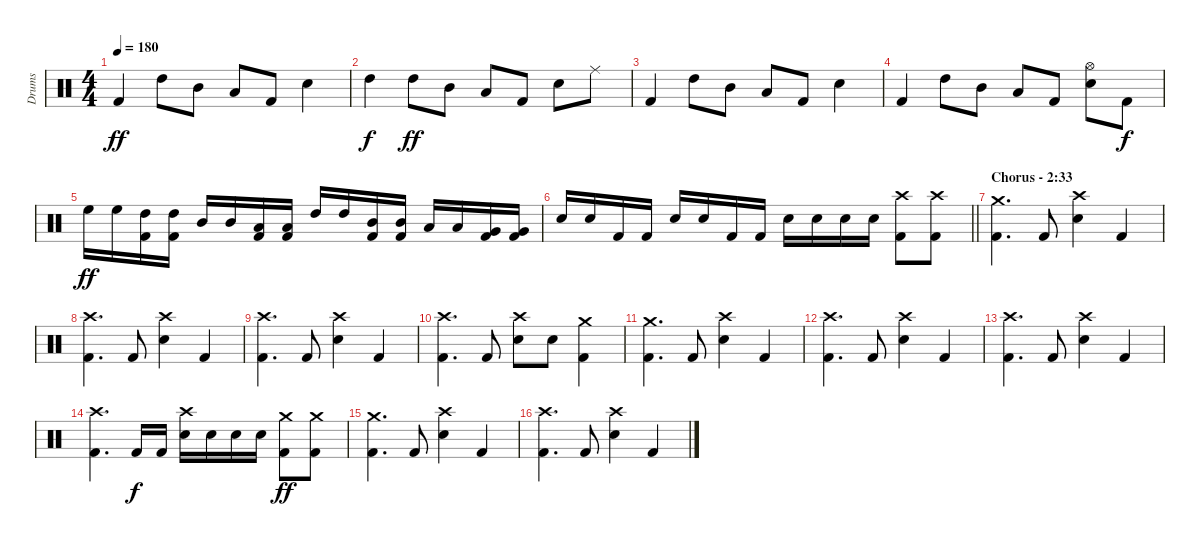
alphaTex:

\track ("Drums" "Drums") {instrument percussion}
\staff {score}
\articulation defaults
\ts (4 4)
\tempo 180
\clef neutral
\ks c "Kick (hit) 2".4{dy ff} "High Tom (hit)".8 "Mid Tom (hit)".8 "Low Tom (hit)".8 "Kick (hit) 2".8 "Electric Snare (hit)".4
|
"High Tom (hit)".4{dy f} "High Tom (hit)".8{dy ff} "Mid Tom (hit)".8 "Low Tom (hit)".8 "Kick (hit) 2".8 "Electric Snare (hit)".8 "Ride (middle)".8 |
"Kick (hit) 2".4 "High Tom (hit)".8 "Mid Tom (hit)".8 "Low Tom (hit)".8 "Kick (hit) 2".8 "Electric Snare (hit)".4 |
"Kick (hit) 2".4 "High Tom (hit)".8 "Mid Tom (hit)".8 "Low Tom (hit)".8 "Kick (hit) 2".8 ("Hi-Hat (open)" "Electric Snare (hit)").8 "Kick (hit) 2".8{dy f} |
"High Floor Tom (hit)".16{dy ff} "High Floor Tom (hit)".16 ("High Tom (hit)" "Kick (hit) 2").16 ("High Tom (hit)" "Kick (hit) 2").16 "Mid Tom (hit)".16 "Mid Tom (hit)".16 ("Low Tom (hit)" "Kick (hit) 2").16 ("Low Tom (hit)" "Kick (hit) 2").16 "High Tom (hit)".16 "High Tom (hit)".16 ("Mid Tom (hit)" "Kick (hit) 2").16 ("Mid Tom (hit)" "Kick (hit) 2").16 "Low Tom (hit)".16 "Low Tom (hit)".16 ("Very Low Tom (hit)" "Kick (hit) 2").16 ("Very Low Tom (hit)" "Kick (hit) 2").16 |
\barLineRight lightlight "Electric Snare (hit)".16 "Electric Snare (hit)".16 "Kick (hit) 2".16 "Kick (hit) 2".16 "Electric Snare (hit)".16 "Electric Snare (hit)".16 "Kick (hit) 2".16 "Kick (hit) 2".16 "Electric Snare (hit)".16 "Electric Snare (hit)".16 "Electric Snare (hit)".16 "Electric Snare (hit)".16
("Crash high (hit)" "Kick (hit) 2").8 ("Crash high (hit)" "Kick (hit) 2").8 |
\section ("" "Chorus - 2:33")
("Crash medium (hit)" "Kick (hit) 2").4{d} "Kick (hit) 2".8 ("Crash high (hit)" "Electric Snare (hit)").4 "Kick (hit) 2".4 |
("Crash high (hit)" "Kick (hit) 2").4{d} "Kick (hit) 2".8 ("Crash high (hit)" "Electric Snare (hit)").4 "Kick (hit) 2".4 |
("Crash high (hit)" "Kick (hit) 2").4{d} "Kick (hit) 2".8 ("Crash high (hit)" "Electric Snare (hit)").4 "Kick (hit) 2".4 |
("Crash high (hit)" "Kick (hit) 2").4{d} "Kick (hit) 2".8 ("Crash high (hit)" "Electric Snare (hit)").8 "Electric Snare (hit)".8 ("Crash medium (hit)" "Kick (hit) 2").4 |
("Crash medium (hit)" "Kick (hit) 2").4{d} "Kick (hit) 2".8 ("Crash high (hit)" "Electric Snare (hit)").4 "Kick (hit) 2".4 |
("Crash high (hit)" "Kick (hit) 2").4{d} "Kick (hit) 2".8 ("Crash high (hit)" "Electric Snare (hit)").4 "Kick (hit) 2".4 |
("Crash high (hit)" "Kick (hit) 2").4{d} "Kick (hit) 2".8 ("Crash high (hit)" "Electric Snare (hit)").4 "Kick (hit) 2".4 |
("Crash high (hit)" "Kick (hit) 2").4{d} "Kick (hit) 2".16{dy f} "Kick (hit) 2".16 ("Crash high (hit)" "Electric Snare (hit)").16 "Electric Snare (hit)".16 "Electric Snare (hit)".16 "Electric Snare (hit)".16 ("Crash medium (hit)" "Kick (hit) 2").8{dy ff} ("Crash medium (hit)" "Kick (hit) 2").8 |
("Crash medium (hit)" "Kick (hit) 2").4{d} "Kick (hit) 2".8 ("Crash high (hit)" "Electric Snare (hit)").4 "Kick (hit) 2".4 |
("Crash high (hit)" "Kick (hit) 2").4{d} "Kick (hit) 2".8 ("Crash high (hit)" "Electric Snare (hit)").4 "Kick (hit) 2".4
